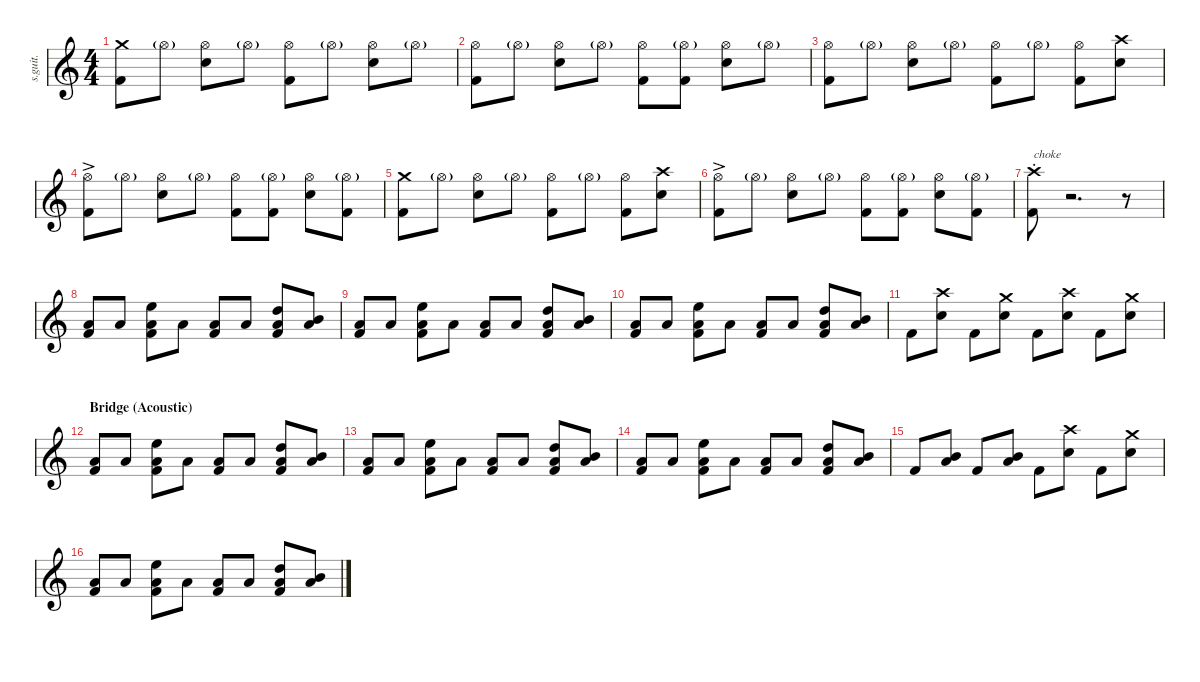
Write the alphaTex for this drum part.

\defaultSystemsLayout 4
\hideDynamics
\bracketExtendMode nobrackets
\track ("Lars Ulrich" "s.guit.") {instrument percussion}
\staff {score}
\articulation defaults
\ts (4 4)
\tempo (124 hide)
\clef g2
\ks c
("Crash medium (hit)" "Kick (hit) 2").8{lyrics (0 "") lyrics (1 "") lyrics (2 "") lyrics (3 "") lyrics (4 "") dy f} "Hi-Hat (open)"{g}.8{lyrics (0 "") lyrics (1 "") lyrics (2 "") lyrics (3 "") lyrics (4 "") dy p} ("Hi-Hat (open)" "Snare (hit) 2").8{lyrics (0 "") lyrics (1 "") lyrics (2 "") lyrics (3 "") lyrics (4 "") dy f} "Hi-Hat (open)"{g}.8{lyrics (0 "") lyrics (1 "") lyrics (2 "") lyrics (3 "") lyrics (4 "") dy p} ("Hi-Hat (open)" "Kick (hit) 2").8{lyrics (0 "") lyrics (1 "") lyrics (2 "") lyrics (3 "") lyrics (4 "") dy f} "Hi-Hat (open)"{g}.8{lyrics (0 "") lyrics (1 "") lyrics (2 "") lyrics (3 "") lyrics (4 "") dy p} ("Hi-Hat (open)" "Snare (hit) 2").8{lyrics (0 "") lyrics (1 "") lyrics (2 "") lyrics (3 "") lyrics (4 "") dy f} "Hi-Hat (open)"{g}.8{lyrics (0 "") lyrics (1 "") lyrics (2 "") lyrics (3 "") lyrics (4 "") dy p} |
("Hi-Hat (open)" "Kick (hit) 2").8{lyrics (0 "") lyrics (1 "") lyrics (2 "") lyrics (3 "") lyrics (4 "") dy f} "Hi-Hat (open)"{g}.8{lyrics (0 "") lyrics (1 "") lyrics (2 "") lyrics (3 "") lyrics (4 "") dy p} ("Hi-Hat (open)" "Snare (hit) 2").8{lyrics (0 "") lyrics (1 "") lyrics (2 "") lyrics (3 "") lyrics (4 "") dy f} "Hi-Hat (open)"{g}.8{lyrics (0 "") lyrics (1 "") lyrics (2 "") lyrics (3 "") lyrics (4 "") dy p} ("Hi-Hat (open)" "Kick (hit) 2").8{lyrics (0 "") lyrics (1 "") lyrics (2 "") lyrics (3 "") lyrics (4 "") dy f} ("Hi-Hat (open)"{g} "Kick (hit) 2").8{lyrics (0 "") lyrics (1 "") lyrics (2 "") lyrics (3 "") lyrics (4 "")} ("Hi-Hat (open)" "Snare (hit) 2").8{lyrics (0 "") lyrics (1 "") lyrics (2 "") lyrics (3 "") lyrics (4 "")} "Hi-Hat (open)"{g}.8{lyrics (0 "") lyrics (1 "") lyrics (2 "") lyrics (3 "") lyrics (4 "") dy p} |
("Hi-Hat (open)" "Kick (hit) 2").8{lyrics (0 "") lyrics (1 "") lyrics (2 "") lyrics (3 "") lyrics (4 "") dy f} "Hi-Hat (open)"{g}.8{lyrics (0 "") lyrics (1 "") lyrics (2 "") lyrics (3 "") lyrics (4 "") dy p} ("Hi-Hat (open)" "Snare (hit) 2").8{lyrics (0 "") lyrics (1 "") lyrics (2 "") lyrics (3 "") lyrics (4 "") dy f} "Hi-Hat (open)"{g}.8{lyrics (0 "") lyrics (1 "") lyrics (2 "") lyrics (3 "") lyrics (4 "") dy p} ("Hi-Hat (open)" "Kick (hit) 2").8{lyrics (0 "") lyrics (1 "") lyrics (2 "") lyrics (3 "") lyrics (4 "") dy f} "Hi-Hat (open)"{g}.8{lyrics (0 "") lyrics (1 "") lyrics (2 "") lyrics (3 "") lyrics (4 "") dy p} ("Hi-Hat (open)" "Kick (hit) 2").8{lyrics (0 "") lyrics (1 "") lyrics (2 "") lyrics (3 "") lyrics (4 "") dy f} ("Crash high (hit)" "Snare (hit) 2").8{lyrics (0 "") lyrics (1 "") lyrics (2 "") lyrics (3 "") lyrics (4 "")} |
("Hi-Hat (open)"{ac} "Kick (hit) 2").8{lyrics (0 "") lyrics (1 "") lyrics (2 "") lyrics (3 "") lyrics (4 "")} "Hi-Hat (open)"{g}.8{lyrics (0 "") lyrics (1 "") lyrics (2 "") lyrics (3 "") lyrics (4 "") dy p} ("Hi-Hat (open)" "Snare (hit) 2").8{lyrics (0 "") lyrics (1 "") lyrics (2 "") lyrics (3 "") lyrics (4 "") dy f} "Hi-Hat (open)"{g}.8{lyrics (0 "") lyrics (1 "") lyrics (2 "") lyrics (3 "") lyrics (4 "") dy p} ("Hi-Hat (open)" "Kick (hit) 2").8{lyrics (0 "") lyrics (1 "") lyrics (2 "") lyrics (3 "") lyrics (4 "") dy f} ("Hi-Hat (open)"{g} "Kick (hit) 2").8{lyrics (0 "") lyrics (1 "") lyrics (2 "") lyrics (3 "") lyrics (4 "")} ("Hi-Hat (open)" "Snare (hit) 2").8{lyrics (0 "") lyrics (1 "") lyrics (2 "") lyrics (3 "") lyrics (4 "")} ("Hi-Hat (open)"{g} "Kick (hit) 2").8{lyrics (0 "") lyrics (1 "") lyrics (2 "") lyrics (3 "") lyrics (4 "")} |
("Crash medium (hit)" "Kick (hit) 2").8{lyrics (0 "") lyrics (1 "") lyrics (2 "") lyrics (3 "") lyrics (4 "")} "Hi-Hat (open)"{g}.8{lyrics (0 "") lyrics (1 "") lyrics (2 "") lyrics (3 "") lyrics (4 "") dy p} ("Hi-Hat (open)" "Snare (hit) 2").8{lyrics (0 "") lyrics (1 "") lyrics (2 "") lyrics (3 "") lyrics (4 "") dy f} "Hi-Hat (open)"{g}.8{lyrics (0 "") lyrics (1 "") lyrics (2 "") lyrics (3 "") lyrics (4 "") dy p} ("Hi-Hat (open)" "Kick (hit) 2").8{lyrics (0 "") lyrics (1 "") lyrics (2 "") lyrics (3 "") lyrics (4 "") dy f} "Hi-Hat (open)"{g}.8{lyrics (0 "") lyrics (1 "") lyrics (2 "") lyrics (3 "") lyrics (4 "") dy p} ("Hi-Hat (open)" "Kick (hit) 2").8{lyrics (0 "") lyrics (1 "") lyrics (2 "") lyrics (3 "") lyrics (4 "") dy f} ("Crash high (hit)" "Snare (hit) 2").8{lyrics (0 "") lyrics (1 "") lyrics (2 "") lyrics (3 "") lyrics (4 "")} |
("Hi-Hat (open)"{ac} "Kick (hit) 2").8{lyrics (0 "") lyrics (1 "") lyrics (2 "") lyrics (3 "") lyrics (4 "")} "Hi-Hat (open)"{g}.8{lyrics (0 "") lyrics (1 "") lyrics (2 "") lyrics (3 "") lyrics (4 "") dy p} ("Hi-Hat (open)" "Snare (hit) 2").8{lyrics (0 "") lyrics (1 "") lyrics (2 "") lyrics (3 "") lyrics (4 "") dy f} "Hi-Hat (open)"{g}.8{lyrics (0 "") lyrics (1 "") lyrics (2 "") lyrics (3 "") lyrics (4 "") dy p} ("Hi-Hat (open)" "Kick (hit) 2").8{lyrics (0 "") lyrics (1 "") lyrics (2 "") lyrics (3 "") lyrics (4 "") dy f} ("Hi-Hat (open)"{g} "Kick (hit) 2").8{lyrics (0 "") lyrics (1 "") lyrics (2 "") lyrics (3 "") lyrics (4 "")} ("Hi-Hat (open)" "Snare (hit) 2").8{lyrics (0 "") lyrics (1 "") lyrics (2 "") lyrics (3 "") lyrics (4 "")} ("Hi-Hat (open)"{g} "Kick (hit) 2").8{lyrics (0 "") lyrics (1 "") lyrics (2 "") lyrics (3 "") lyrics (4 "")} |
("Crash high (hit)"{st} "Kick (hit) 2").8{txt "choke" lyrics (0 "") lyrics (1 "") lyrics (2 "") lyrics (3 "") lyrics (4 "")} r.2{d} r.8 |
("Low Floor Tom (hit)" "Kick (hit) 2").8{lyrics (0 "") lyrics (1 "") lyrics (2 "") lyrics (3 "") lyrics (4 "")} "Low Floor Tom (hit)".8{lyrics (0 "") lyrics (1 "") lyrics (2 "") lyrics (3 "") lyrics (4 "") dy mf} ("Low Floor Tom (hit)" "Kick (hit) 2" "High Floor Tom (hit)").8{lyrics (0 "") lyrics (1 "") lyrics (2 "") lyrics (3 "") lyrics (4 "") dy f} "Low Floor Tom (hit)".8{lyrics (0 "") lyrics (1 "") lyrics (2 "") lyrics (3 "") lyrics (4 "") dy mf} ("Low Floor Tom (hit)" "Kick (hit) 2").8{lyrics (0 "") lyrics (1 "") lyrics (2 "") lyrics (3 "") lyrics (4 "") dy f} "Low Floor Tom (hit)".8{lyrics (0 "") lyrics (1 "") lyrics (2 "") lyrics (3 "") lyrics (4 "") dy mf} ("Low Floor Tom (hit)" "Kick (hit) 2" "High Tom (hit)").8{lyrics (0 "") lyrics (1 "") lyrics (2 "") lyrics (3 "") lyrics (4 "") dy f} ("Low Floor Tom (hit)" "Mid Tom (hit)").8{lyrics (0 "") lyrics (1 "") lyrics (2 "") lyrics (3 "") lyrics (4 "") dy ff} |
("Low Floor Tom (hit)" "Kick (hit) 2").8{lyrics (0 "") lyrics (1 "") lyrics (2 "") lyrics (3 "") lyrics (4 "") dy f} "Low Floor Tom (hit)".8{lyrics (0 "") lyrics (1 "") lyrics (2 "") lyrics (3 "") lyrics (4 "") dy mf} ("Low Floor Tom (hit)" "Kick (hit) 2" "High Floor Tom (hit)").8{lyrics (0 "") lyrics (1 "") lyrics (2 "") lyrics (3 "") lyrics (4 "") dy f} "Low Floor Tom (hit)".8{lyrics (0 "") lyrics (1 "") lyrics (2 "") lyrics (3 "") lyrics (4 "") dy mf} ("Low Floor Tom (hit)" "Kick (hit) 2").8{lyrics (0 "") lyrics (1 "") lyrics (2 "") lyrics (3 "") lyrics (4 "") dy f} "Low Floor Tom (hit)".8{lyrics (0 "") lyrics (1 "") lyrics (2 "") lyrics (3 "") lyrics (4 "") dy mf} ("Low Floor Tom (hit)" "Kick (hit) 2" "High Tom (hit)").8{lyrics (0 "") lyrics (1 "") lyrics (2 "") lyrics (3 "") lyrics (4 "") dy f} ("Low Floor Tom (hit)" "Mid Tom (hit)").8{lyrics (0 "") lyrics (1 "") lyrics (2 "") lyrics (3 "") lyrics (4 "") dy ff} |
("Low Floor Tom (hit)" "Kick (hit) 2").8{lyrics (0 "") lyrics (1 "") lyrics (2 "") lyrics (3 "") lyrics (4 "") dy f} "Low Floor Tom (hit)".8{lyrics (0 "") lyrics (1 "") lyrics (2 "") lyrics (3 "") lyrics (4 "") dy mf} ("Low Floor Tom (hit)" "Kick (hit) 2" "High Floor Tom (hit)").8{lyrics (0 "") lyrics (1 "") lyrics (2 "") lyrics (3 "") lyrics (4 "") dy f} "Low Floor Tom (hit)".8{lyrics (0 "") lyrics (1 "") lyrics (2 "") lyrics (3 "") lyrics (4 "") dy mf} ("Low Floor Tom (hit)" "Kick (hit) 2").8{lyrics (0 "") lyrics (1 "") lyrics (2 "") lyrics (3 "") lyrics (4 "") dy f} "Low Floor Tom (hit)".8{lyrics (0 "") lyrics (1 "") lyrics (2 "") lyrics (3 "") lyrics (4 "") dy mf} ("Low Floor Tom (hit)" "Kick (hit) 2" "High Tom (hit)").8{lyrics (0 "") lyrics (1 "") lyrics (2 "") lyrics (3 "") lyrics (4 "") dy f} ("Low Floor Tom (hit)" "Mid Tom (hit)").8{lyrics (0 "") lyrics (1 "") lyrics (2 "") lyrics (3 "") lyrics (4 "") dy ff} |
"Kick (hit) 2".8{lyrics (0 "") lyrics (1 "") lyrics (2 "") lyrics (3 "") lyrics (4 "") dy f} ("Snare (hit) 2" "Crash high (hit)").8{lyrics (0 "") lyrics (1 "") lyrics (2 "") lyrics (3 "") lyrics (4 "")} "Kick (hit) 2".8{lyrics (0 "") lyrics (1 "") lyrics (2 "") lyrics (3 "") lyrics (4 "")} ("Snare (hit) 2" "Crash medium (hit)").8{lyrics (0 "") lyrics (1 "") lyrics (2 "") lyrics (3 "") lyrics (4 "")} "Kick (hit) 2".8{lyrics (0 "") lyrics (1 "") lyrics (2 "") lyrics (3 "") lyrics (4 "")} ("Snare (hit) 2" "Crash high (hit)").8{lyrics (0 "") lyrics (1 "") lyrics (2 "") lyrics (3 "") lyrics (4 "")} "Kick (hit) 2".8{lyrics (0 "") lyrics (1 "") lyrics (2 "") lyrics (3 "") lyrics (4 "")} ("Snare (hit) 2" "Crash medium (hit)").8{lyrics (0 "") lyrics (1 "") lyrics (2 "") lyrics (3 "") lyrics (4 "")} |
\section ("" "Bridge (Acoustic)")
("Low Floor Tom (hit)" "Kick (hit) 2").8{lyrics (0 "") lyrics (1 "") lyrics (2 "") lyrics (3 "") lyrics (4 "")} "Low Floor Tom (hit)".8{lyrics (0 "") lyrics (1 "") lyrics (2 "") lyrics (3 "") lyrics (4 "") dy mf} ("Low Floor Tom (hit)" "Kick (hit) 2" "High Floor Tom (hit)").8{lyrics (0 "") lyrics (1 "") lyrics (2 "") lyrics (3 "") lyrics (4 "") dy f} "Low Floor Tom (hit)".8{lyrics (0 "") lyrics (1 "") lyrics (2 "") lyrics (3 "") lyrics (4 "") dy mf} ("Low Floor Tom (hit)" "Kick (hit) 2").8{lyrics (0 "") lyrics (1 "") lyrics (2 "") lyrics (3 "") lyrics (4 "") dy f} "Low Floor Tom (hit)".8{lyrics (0 "") lyrics (1 "") lyrics (2 "") lyrics (3 "") lyrics (4 "") dy mf} ("Low Floor Tom (hit)" "Kick (hit) 2" "High Tom (hit)").8{lyrics (0 "") lyrics (1 "") lyrics (2 "") lyrics (3 "") lyrics (4 "") dy f} ("Low Floor Tom (hit)" "Mid Tom (hit)").8{lyrics (0 "") lyrics (1 "") lyrics (2 "") lyrics (3 "") lyrics (4 "") dy ff} |
("Low Floor Tom (hit)" "Kick (hit) 2").8{lyrics (0 "") lyrics (1 "") lyrics (2 "") lyrics (3 "") lyrics (4 "") dy f} "Low Floor Tom (hit)".8{lyrics (0 "") lyrics (1 "") lyrics (2 "") lyrics (3 "") lyrics (4 "") dy mf} ("Low Floor Tom (hit)" "Kick (hit) 2" "High Floor Tom (hit)").8{lyrics (0 "") lyrics (1 "") lyrics (2 "") lyrics (3 "") lyrics (4 "") dy f} "Low Floor Tom (hit)".8{lyrics (0 "") lyrics (1 "") lyrics (2 "") lyrics (3 "") lyrics (4 "") dy mf} ("Low Floor Tom (hit)" "Kick (hit) 2").8{lyrics (0 "") lyrics (1 "") lyrics (2 "") lyrics (3 "") lyrics (4 "") dy f} "Low Floor Tom (hit)".8{lyrics (0 "") lyrics (1 "") lyrics (2 "") lyrics (3 "") lyrics (4 "") dy mf} ("Low Floor Tom (hit)" "Kick (hit) 2" "High Tom (hit)").8{lyrics (0 "") lyrics (1 "") lyrics (2 "") lyrics (3 "") lyrics (4 "") dy f} ("Low Floor Tom (hit)" "Mid Tom (hit)").8{lyrics (0 "") lyrics (1 "") lyrics (2 "") lyrics (3 "") lyrics (4 "") dy ff} |
("Low Floor Tom (hit)" "Kick (hit) 2").8{lyrics (0 "") lyrics (1 "") lyrics (2 "") lyrics (3 "") lyrics (4 "") dy f} "Low Floor Tom (hit)".8{lyrics (0 "") lyrics (1 "") lyrics (2 "") lyrics (3 "") lyrics (4 "") dy mf} ("Low Floor Tom (hit)" "Kick (hit) 2" "High Floor Tom (hit)").8{lyrics (0 "") lyrics (1 "") lyrics (2 "") lyrics (3 "") lyrics (4 "") dy f} "Low Floor Tom (hit)".8{lyrics (0 "") lyrics (1 "") lyrics (2 "") lyrics (3 "") lyrics (4 "") dy mf} ("Low Floor Tom (hit)" "Kick (hit) 2").8{lyrics (0 "") lyrics (1 "") lyrics (2 "") lyrics (3 "") lyrics (4 "") dy f} "Low Floor Tom (hit)".8{lyrics (0 "") lyrics (1 "") lyrics (2 "") lyrics (3 "") lyrics (4 "") dy mf} ("Low Floor Tom (hit)" "Kick (hit) 2" "High Tom (hit)").8{lyrics (0 "") lyrics (1 "") lyrics (2 "") lyrics (3 "") lyrics (4 "") dy f} ("Low Floor Tom (hit)" "Mid Tom (hit)").8{lyrics (0 "") lyrics (1 "") lyrics (2 "") lyrics (3 "") lyrics (4 "") dy ff} |
"Kick (hit) 2".8{lyrics (0 "") lyrics (1 "") lyrics (2 "") lyrics (3 "") lyrics (4 "") dy f} ("Low Floor Tom (hit)" "Mid Tom (hit)").8{lyrics (0 "") lyrics (1 "") lyrics (2 "") lyrics (3 "") lyrics (4 "") dy ff} "Kick (hit) 2".8{lyrics (0 "") lyrics (1 "") lyrics (2 "") lyrics (3 "") lyrics (4 "") dy f} ("Low Floor Tom (hit)" "Mid Tom (hit)").8{lyrics (0 "") lyrics (1 "") lyrics (2 "") lyrics (3 "") lyrics (4 "") dy ff} "Kick (hit) 2".8{lyrics (0 "") lyrics (1 "") lyrics (2 "") lyrics (3 "") lyrics (4 "") dy f} ("Snare (hit) 2" "Crash high (hit)").8{lyrics (0 "") lyrics (1 "") lyrics (2 "") lyrics (3 "") lyrics (4 "")} "Kick (hit) 2".8{lyrics (0 "") lyrics (1 "") lyrics (2 "") lyrics (3 "") lyrics (4 "")} ("Snare (hit) 2" "Crash medium (hit)").8{lyrics (0 "") lyrics (1 "") lyrics (2 "") lyrics (3 "") lyrics (4 "")} |
("Low Floor Tom (hit)" "Kick (hit) 2").8{lyrics (0 "") lyrics (1 "") lyrics (2 "") lyrics (3 "") lyrics (4 "")} "Low Floor Tom (hit)".8{lyrics (0 "") lyrics (1 "") lyrics (2 "") lyrics (3 "") lyrics (4 "") dy mf} ("Low Floor Tom (hit)" "Kick (hit) 2" "High Floor Tom (hit)").8{lyrics (0 "") lyrics (1 "") lyrics (2 "") lyrics (3 "") lyrics (4 "") dy f} "Low Floor Tom (hit)".8{lyrics (0 "") lyrics (1 "") lyrics (2 "") lyrics (3 "") lyrics (4 "") dy mf} ("Low Floor Tom (hit)" "Kick (hit) 2").8{lyrics (0 "") lyrics (1 "") lyrics (2 "") lyrics (3 "") lyrics (4 "") dy f} "Low Floor Tom (hit)".8{lyrics (0 "") lyrics (1 "") lyrics (2 "") lyrics (3 "") lyrics (4 "") dy mf} ("Low Floor Tom (hit)" "Kick (hit) 2" "High Tom (hit)").8{lyrics (0 "") lyrics (1 "") lyrics (2 "") lyrics (3 "") lyrics (4 "") dy f} ("Low Floor Tom (hit)" "Mid Tom (hit)").8{lyrics (0 "") lyrics (1 "") lyrics (2 "") lyrics (3 "") lyrics (4 "") dy ff}
